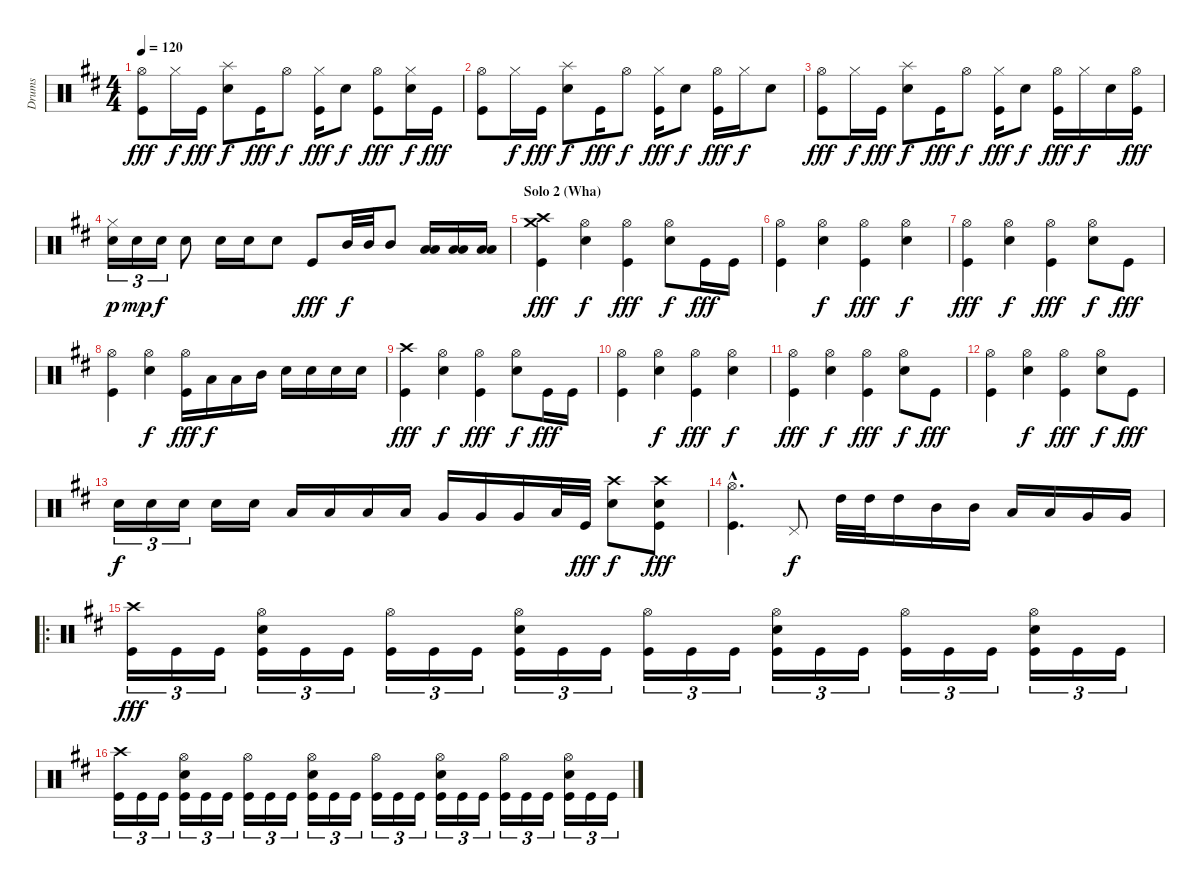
\track ("Drums" "Drums") {instrument percussion}
\staff {score}
\articulation defaults
\ts (4 4)
\tempo 120
\clef neutral
\ks d
("Hi-Hat (open)" "Kick (hit)").8{dy fff} "Hi-Hat (closed)".16{dy f} "Kick (hit)".16{dy fff} ("Splash (hit)" "Snare (hit) 2").8{dy f} "Kick (hit)".16{dy fff} "Hi-Hat (open)".8{dy f} ("Hi-Hat (closed)" "Kick (hit)").16{dy fff} "Snare (hit) 2".8{dy f} ("Hi-Hat (open)" "Kick (hit)").8{dy fff} ("Hi-Hat (closed)" "Snare (hit) 2").16{dy f} "Kick (hit)".16{dy fff} |
("Hi-Hat (open)" "Kick (hit)").8 "Hi-Hat (closed)".16{dy f} "Kick (hit)".16{dy fff} ("Splash (hit)" "Snare (hit) 2").8{dy f} "Kick (hit)".16{dy fff} "Hi-Hat (open)".8{dy f} ("Hi-Hat (closed)" "Kick (hit)").16{dy fff} "Snare (hit) 2".8{dy f} ("Hi-Hat (open)" "Kick (hit)").16{dy fff} "Hi-Hat (closed)".16{dy f} "Snare (hit) 2".8 |
("Hi-Hat (open)" "Kick (hit)").8{dy fff} "Hi-Hat (closed)".16{dy f} "Kick (hit)".16{dy fff} ("Splash (hit)" "Snare (hit) 2").8{dy f} "Kick (hit)".16{dy fff} "Hi-Hat (open)".8{dy f} ("Hi-Hat (closed)" "Kick (hit)").16{dy fff} "Snare (hit) 2".8{dy f} ("Hi-Hat (open)" "Kick (hit)").16{dy fff} "Hi-Hat (closed)".16{dy f} "Snare (hit) 2".16 ("Hi-Hat (open)" "Kick (hit)").16{dy fff} |
("Hi-Hat (closed)" "Snare (hit) 2").16{tu (3 2) dy p} "Snare (hit) 2".16{tu (3 2) dy mp} "Snare (hit) 2".16{tu (3 2) dy f} "Snare (hit) 2".8 "Snare (hit) 2".16 "Snare (hit) 2".16 "Snare (hit) 2".8 "Kick (hit)".8{dy fff} "Mid Tom (hit)".32{dy f} "Mid Tom (hit)".32 "Mid Tom (hit)".8 ("Low Tom (hit)" "Low Floor Tom (hit)").16 ("Low Tom (hit)" "Low Floor Tom (hit)").16 ("Low Tom (hit)" "Low Floor Tom (hit)").16 |
\section ("" "Solo 2 (Wha)")
("Crash high (hit)" "Crash medium (hit)" "Kick (hit)").4{dy fff} ("Hi-Hat (open)" "Snare (hit) 2").4{dy f} ("Hi-Hat (open)" "Kick (hit)").4{dy fff} ("Hi-Hat (open)" "Snare (hit) 2").8{dy f} "Kick (hit)".16{dy fff} "Kick (hit)".16 |
("Hi-Hat (open)" "Kick (hit)").4 ("Hi-Hat (open)" "Snare (hit) 2").4{dy f} ("Hi-Hat (open)" "Kick (hit)").4{dy fff} ("Hi-Hat (open)" "Snare (hit) 2").4{dy f} |
("Hi-Hat (open)" "Kick (hit)").4{dy fff} ("Hi-Hat (open)" "Snare (hit) 2").4{dy f} ("Hi-Hat (open)" "Kick (hit)").4{dy fff} ("Hi-Hat (open)" "Snare (hit) 2").8{dy f} "Kick (hit)".8{dy fff} |
("Hi-Hat (open)" "Kick (hit)").4 ("Hi-Hat (open)" "Snare (hit) 2").4{dy f} ("Hi-Hat (open)" "Kick (hit)").16{dy fff} "Low Tom (hit)".16{dy f} "Low Tom (hit)".16 "Mid Tom (hit)".16 "Snare (hit) 2".16 "Snare (hit) 2".16 "Snare (hit) 2".16 "Snare (hit) 2".16 |
("Crash high (hit)" "Kick (hit)").4{dy fff} ("Hi-Hat (open)" "Snare (hit) 2").4{dy f} ("Hi-Hat (open)" "Kick (hit)").4{dy fff} ("Hi-Hat (open)" "Snare (hit) 2").8{dy f} "Kick (hit)".16{dy fff} "Kick (hit)".16 |
("Hi-Hat (open)" "Kick (hit)").4 ("Hi-Hat (open)" "Snare (hit) 2").4{dy f} ("Hi-Hat (open)" "Kick (hit)").4{dy fff} ("Hi-Hat (open)" "Snare (hit) 2").4{dy f} |
("Hi-Hat (open)" "Kick (hit)").4{dy fff} ("Hi-Hat (open)" "Snare (hit) 2").4{dy f} ("Hi-Hat (open)" "Kick (hit)").4{dy fff} ("Hi-Hat (open)" "Snare (hit) 2").8{dy f} "Kick (hit)".8{dy fff} |
("Hi-Hat (open)" "Kick (hit)").4 ("Hi-Hat (open)" "Snare (hit) 2").4{dy f} ("Hi-Hat (open)" "Kick (hit)").4{dy fff} ("Hi-Hat (open)" "Snare (hit) 2").8{dy f} "Kick (hit)".8{dy fff} |
"Snare (hit) 2".16{tu (3 2) dy f} "Snare (hit) 2".16{tu (3 2)} "Snare (hit) 2".16{tu (3 2)} "Snare (hit) 2".16 "Snare (hit) 2".16 "Low Tom (hit)".16 "Low Tom (hit)".16 "Low Tom (hit)".16 "Low Tom (hit)".16 "Very Low Tom (hit)".16 "Very Low Tom (hit)".16 "Very Low Tom (hit)".16 "Low Floor Tom (hit)".32 "Kick (hit)".32{dy fff} ("Crash high (hit)" "Snare (hit) 2").8{dy f} ("Crash high (hit)" "Snare (hit) 2" "Kick (hit)").8{dy fff} |
("Hi-Hat (open)"{hac} "Kick (hit)"{hac}).4{d} "Pedal Hi-Hat (hit)".8{dy f} "High Tom (hit)".32 "High Tom (hit)".32 "High Tom (hit)".16 "Mid Tom (hit)".16 "Mid Tom (hit)".16 "Low Tom (hit)".16 "Low Tom (hit)".16 "Very Low Tom (hit)".16 "Very Low Tom (hit)".16 |
\ro
("Crash high (hit)" "Kick (hit)").16{tu (3 2) dy fff} "Kick (hit)".16{tu (3 2)} "Kick (hit)".16{tu (3 2)} ("Hi-Hat (open)" "Snare (hit) 2" "Kick (hit)").16{tu (3 2)} "Kick (hit)".16{tu (3 2)} "Kick (hit)".16{tu (3 2)} ("Hi-Hat (open)" "Kick (hit)").16{tu (3 2)} "Kick (hit)".16{tu (3 2)} "Kick (hit)".16{tu (3 2)} ("Hi-Hat (open)" "Snare (hit) 2" "Kick (hit)").16{tu (3 2)} "Kick (hit)".16{tu (3 2)} "Kick (hit)".16{tu (3 2)} ("Hi-Hat (open)" "Kick (hit)").16{tu (3 2)} "Kick (hit)".16{tu (3 2)} "Kick (hit)".16{tu (3 2)} ("Hi-Hat (open)" "Snare (hit) 2" "Kick (hit)").16{tu (3 2)} "Kick (hit)".16{tu (3 2)} "Kick (hit)".16{tu (3 2)} ("Hi-Hat (open)" "Kick (hit)").16{tu (3 2)} "Kick (hit)".16{tu (3 2)} "Kick (hit)".16{tu (3 2)} ("Hi-Hat (open)" "Snare (hit) 2" "Kick (hit)").16{tu (3 2)} "Kick (hit)".16{tu (3 2)} "Kick (hit)".16{tu (3 2)} |
("Crash high (hit)" "Kick (hit)").16{tu (3 2)} "Kick (hit)".16{tu (3 2)} "Kick (hit)".16{tu (3 2)} ("Hi-Hat (open)" "Snare (hit) 2" "Kick (hit)").16{tu (3 2)} "Kick (hit)".16{tu (3 2)} "Kick (hit)".16{tu (3 2)} ("Hi-Hat (open)" "Kick (hit)").16{tu (3 2)} "Kick (hit)".16{tu (3 2)} "Kick (hit)".16{tu (3 2)} ("Hi-Hat (open)" "Snare (hit) 2" "Kick (hit)").16{tu (3 2)} "Kick (hit)".16{tu (3 2)} "Kick (hit)".16{tu (3 2)} ("Hi-Hat (open)" "Kick (hit)").16{tu (3 2)} "Kick (hit)".16{tu (3 2)} "Kick (hit)".16{tu (3 2)} ("Hi-Hat (open)" "Snare (hit) 2" "Kick (hit)").16{tu (3 2)} "Kick (hit)".16{tu (3 2)} "Kick (hit)".16{tu (3 2)} ("Hi-Hat (open)" "Kick (hit)").16{tu (3 2)} "Kick (hit)".16{tu (3 2)} "Kick (hit)".16{tu (3 2)} ("Hi-Hat (open)" "Snare (hit) 2" "Kick (hit)").16{tu (3 2)} "Kick (hit)".16{tu (3 2)} "Kick (hit)".16{tu (3 2)}
